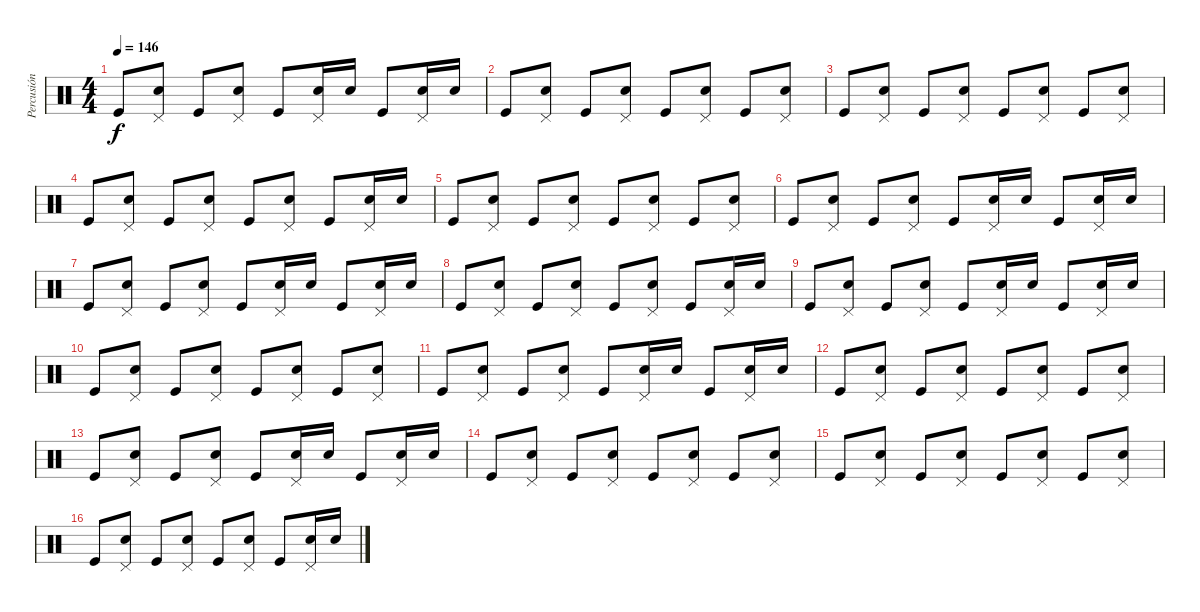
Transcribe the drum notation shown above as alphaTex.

\track ("Percusión" "Percusión") {instrument percussion}
\staff {score}
\articulation defaults
\ts (4 4)
\tempo 146
\clef neutral
\ks c "Kick (hit)".8{dy f}
("Pedal Hi-Hat (hit)" "Snare (hit) 2").8 "Kick (hit)".8 ("Pedal Hi-Hat (hit)" "Snare (hit) 2").8 "Kick (hit)".8 ("Pedal Hi-Hat (hit)" "Snare (hit) 2").16 "Snare (hit) 2".16 "Kick (hit)".8 ("Pedal Hi-Hat (hit)" "Snare (hit) 2").16 "Snare (hit) 2".16 |
"Kick (hit)".8 ("Pedal Hi-Hat (hit)" "Snare (hit) 2").8 "Kick (hit)".8 ("Pedal Hi-Hat (hit)" "Snare (hit) 2").8 "Kick (hit)".8 ("Pedal Hi-Hat (hit)" "Snare (hit) 2").8 "Kick (hit)".8 ("Pedal Hi-Hat (hit)" "Snare (hit) 2").8 |
"Kick (hit)".8 ("Pedal Hi-Hat (hit)" "Snare (hit) 2").8 "Kick (hit)".8 ("Pedal Hi-Hat (hit)" "Snare (hit) 2").8 "Kick (hit)".8 ("Pedal Hi-Hat (hit)" "Snare (hit) 2").8 "Kick (hit)".8 ("Pedal Hi-Hat (hit)" "Snare (hit) 2").8 |
"Kick (hit)".8 ("Pedal Hi-Hat (hit)" "Snare (hit) 2").8 "Kick (hit)".8 ("Pedal Hi-Hat (hit)" "Snare (hit) 2").8 "Kick (hit)".8 ("Pedal Hi-Hat (hit)" "Snare (hit) 2").8 "Kick (hit)".8 ("Pedal Hi-Hat (hit)" "Snare (hit) 2").16 "Snare (hit) 2".16 |
"Kick (hit)".8 ("Pedal Hi-Hat (hit)" "Snare (hit) 2").8 "Kick (hit)".8 ("Pedal Hi-Hat (hit)" "Snare (hit) 2").8 "Kick (hit)".8 ("Pedal Hi-Hat (hit)" "Snare (hit) 2").8 "Kick (hit)".8 ("Pedal Hi-Hat (hit)" "Snare (hit) 2").8 |
"Kick (hit)".8 ("Pedal Hi-Hat (hit)" "Snare (hit) 2").8 "Kick (hit)".8 ("Pedal Hi-Hat (hit)" "Snare (hit) 2").8 "Kick (hit)".8 ("Pedal Hi-Hat (hit)" "Snare (hit) 2").16 "Snare (hit) 2".16 "Kick (hit)".8 ("Pedal Hi-Hat (hit)" "Snare (hit) 2").16 "Snare (hit) 2".16 |
"Kick (hit)".8 ("Pedal Hi-Hat (hit)" "Snare (hit) 2").8 "Kick (hit)".8 ("Pedal Hi-Hat (hit)" "Snare (hit) 2").8 "Kick (hit)".8 ("Pedal Hi-Hat (hit)" "Snare (hit) 2").16 "Snare (hit) 2".16 "Kick (hit)".8 ("Pedal Hi-Hat (hit)" "Snare (hit) 2").16 "Snare (hit) 2".16 |
"Kick (hit)".8 ("Pedal Hi-Hat (hit)" "Snare (hit) 2").8 "Kick (hit)".8 ("Pedal Hi-Hat (hit)" "Snare (hit) 2").8 "Kick (hit)".8 ("Pedal Hi-Hat (hit)" "Snare (hit) 2").8 "Kick (hit)".8 ("Pedal Hi-Hat (hit)" "Snare (hit) 2").16 "Snare (hit) 2".16 |
"Kick (hit)".8 ("Pedal Hi-Hat (hit)" "Snare (hit) 2").8 "Kick (hit)".8 ("Pedal Hi-Hat (hit)" "Snare (hit) 2").8 "Kick (hit)".8 ("Pedal Hi-Hat (hit)" "Snare (hit) 2").16 "Snare (hit) 2".16 "Kick (hit)".8 ("Pedal Hi-Hat (hit)" "Snare (hit) 2").16 "Snare (hit) 2".16 |
"Kick (hit)".8 ("Pedal Hi-Hat (hit)" "Snare (hit) 2").8 "Kick (hit)".8 ("Pedal Hi-Hat (hit)" "Snare (hit) 2").8 "Kick (hit)".8 ("Pedal Hi-Hat (hit)" "Snare (hit) 2").8 "Kick (hit)".8 ("Pedal Hi-Hat (hit)" "Snare (hit) 2").8 |
"Kick (hit)".8 ("Pedal Hi-Hat (hit)" "Snare (hit) 2").8 "Kick (hit)".8 ("Pedal Hi-Hat (hit)" "Snare (hit) 2").8 "Kick (hit)".8 ("Pedal Hi-Hat (hit)" "Snare (hit) 2").16 "Snare (hit) 2".16 "Kick (hit)".8 ("Pedal Hi-Hat (hit)" "Snare (hit) 2").16 "Snare (hit) 2".16 |
"Kick (hit)".8 ("Pedal Hi-Hat (hit)" "Snare (hit) 2").8 "Kick (hit)".8 ("Pedal Hi-Hat (hit)" "Snare (hit) 2").8 "Kick (hit)".8 ("Pedal Hi-Hat (hit)" "Snare (hit) 2").8 "Kick (hit)".8 ("Pedal Hi-Hat (hit)" "Snare (hit) 2").8 |
"Kick (hit)".8 ("Pedal Hi-Hat (hit)" "Snare (hit) 2").8 "Kick (hit)".8 ("Pedal Hi-Hat (hit)" "Snare (hit) 2").8 "Kick (hit)".8 ("Pedal Hi-Hat (hit)" "Snare (hit) 2").16 "Snare (hit) 2".16 "Kick (hit)".8 ("Pedal Hi-Hat (hit)" "Snare (hit) 2").16 "Snare (hit) 2".16 |
"Kick (hit)".8 ("Pedal Hi-Hat (hit)" "Snare (hit) 2").8 "Kick (hit)".8 ("Pedal Hi-Hat (hit)" "Snare (hit) 2").8 "Kick (hit)".8 ("Pedal Hi-Hat (hit)" "Snare (hit) 2").8 "Kick (hit)".8 ("Pedal Hi-Hat (hit)" "Snare (hit) 2").8 |
"Kick (hit)".8 ("Pedal Hi-Hat (hit)" "Snare (hit) 2").8 "Kick (hit)".8 ("Pedal Hi-Hat (hit)" "Snare (hit) 2").8 "Kick (hit)".8 ("Pedal Hi-Hat (hit)" "Snare (hit) 2").8 "Kick (hit)".8 ("Pedal Hi-Hat (hit)" "Snare (hit) 2").8 |
"Kick (hit)".8 ("Pedal Hi-Hat (hit)" "Snare (hit) 2").8 "Kick (hit)".8 ("Pedal Hi-Hat (hit)" "Snare (hit) 2").8 "Kick (hit)".8 ("Pedal Hi-Hat (hit)" "Snare (hit) 2").8 "Kick (hit)".8 ("Pedal Hi-Hat (hit)" "Snare (hit) 2").16 "Snare (hit) 2".16
